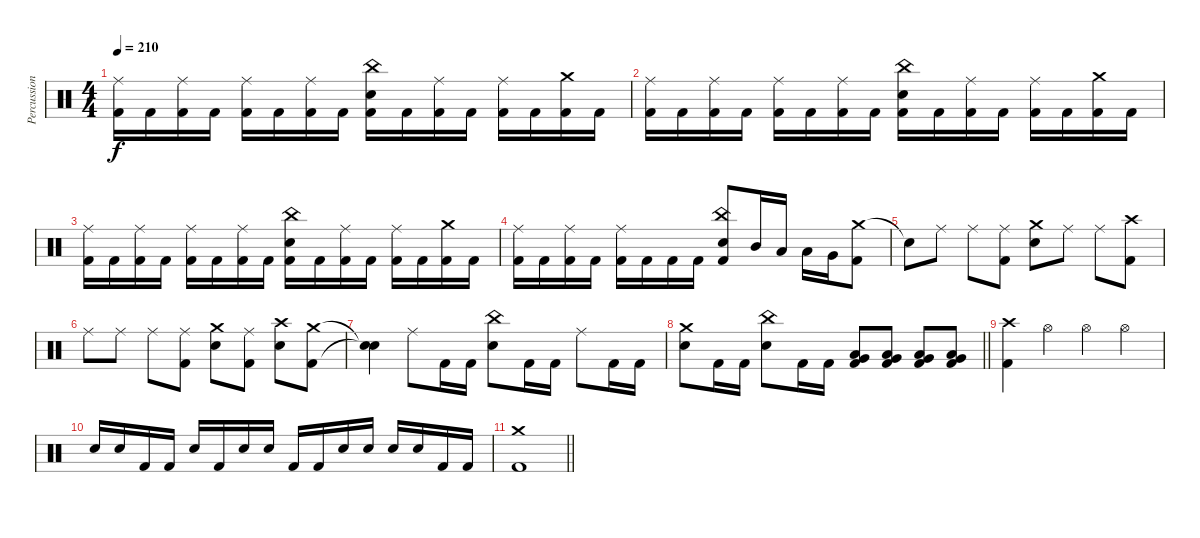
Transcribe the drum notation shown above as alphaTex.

\track ("Percussion" "Percussion") {instrument percussion}
\staff {score}
\articulation defaults
\ts (4 4)
\tempo 210
\clef neutral
\ks c
("Ride (middle)" "Kick (hit) 2").16{dy f} "Kick (hit) 2".16 ("Ride (middle)" "Kick (hit) 2").16 "Kick (hit) 2".16 ("Ride (middle)" "Kick (hit) 2").16 "Kick (hit) 2".16 ("Ride (middle)" "Kick (hit) 2").16 "Kick (hit) 2".16 ("China (hit)" "Snare (hit) 2" "Kick (hit) 2").16 "Kick (hit) 2".16 ("Ride (middle)" "Kick (hit) 2").16 "Kick (hit) 2".16 ("Ride (middle)" "Kick (hit) 2").16 "Kick (hit) 2".16 ("Crash medium (hit)" "Kick (hit) 2").16 "Kick (hit) 2".16 |
("Ride (middle)" "Kick (hit) 2").16 "Kick (hit) 2".16 ("Ride (middle)" "Kick (hit) 2").16 "Kick (hit) 2".16 ("Ride (middle)" "Kick (hit) 2").16 "Kick (hit) 2".16 ("Ride (middle)" "Kick (hit) 2").16 "Kick (hit) 2".16 ("China (hit)" "Snare (hit) 2" "Kick (hit) 2").16 "Kick (hit) 2".16 ("Ride (middle)" "Kick (hit) 2").16 "Kick (hit) 2".16 ("Ride (middle)" "Kick (hit) 2").16 "Kick (hit) 2".16 ("Crash medium (hit)" "Kick (hit) 2").16 "Kick (hit) 2".16 |
("Ride (middle)" "Kick (hit) 2").16 "Kick (hit) 2".16 ("Ride (middle)" "Kick (hit) 2").16 "Kick (hit) 2".16 ("Ride (middle)" "Kick (hit) 2").16 "Kick (hit) 2".16 ("Ride (middle)" "Kick (hit) 2").16 "Kick (hit) 2".16 ("China (hit)" "Snare (hit) 2" "Kick (hit) 2").16 "Kick (hit) 2".16 ("Ride (middle)" "Kick (hit) 2").16 "Kick (hit) 2".16 ("Ride (middle)" "Kick (hit) 2").16 "Kick (hit) 2".16 ("Crash medium (hit)" "Kick (hit) 2").16 "Kick (hit) 2".16 |
("Ride (middle)" "Kick (hit) 2").16 "Kick (hit) 2".16 ("Ride (middle)" "Kick (hit) 2").16 "Kick (hit) 2".16 ("Ride (middle)" "Kick (hit) 2").16 "Kick (hit) 2".16 "Kick (hit) 2".16 "Kick (hit) 2".16 ("China (hit)" "Snare (hit) 2" "Kick (hit) 2").8 "Mid Tom (hit)".16 "Low Tom (hit)".16 "Low Tom (hit)".16 "Very Low Tom (hit)".16 ("Crash medium (hit)" "Kick (hit) 2").8 |
"Snare (hit)"{t}.8 "Ride (middle)".8 "Ride (middle)".8 ("Ride (middle)" "Kick (hit) 2").8 ("Crash medium (hit)" "Snare (hit) 2").8 "Ride (middle)".8 "Ride (middle)".8 ("Crash high (hit)" "Kick (hit) 2").8 |
"Ride (middle)".8 "Ride (middle)".8 "Ride (middle)".8 ("Ride (middle)" "Kick (hit) 2").8 ("Crash medium (hit)" "Snare (hit) 2").8 ("Ride (middle)" "Kick (hit) 2").8 ("Crash high (hit)" "Snare (hit) 2").8 ("Crash medium (hit)" "Kick (hit) 2").8 |
("Snare (hit)"{t} "Snare (hit)"{t}).4 "Ride (middle)".8 "Kick (hit) 2".16 "Kick (hit) 2".16 ("China (hit)" "Snare (hit) 2").8 "Kick (hit) 2".16 "Kick (hit) 2".16 "Ride (middle)".8 "Kick (hit) 2".16 "Kick (hit) 2".16 |
\barLineRight lightlight
("Crash medium (hit)" "Snare (hit) 2").8 "Kick (hit) 2".16 "Kick (hit) 2".16 ("China (hit)" "Snare (hit) 2").8 "Kick (hit) 2".16 "Kick (hit) 2".16 ("Very Low Tom (hit)" "Low Floor Tom (hit)" "Kick (hit) 2").8 ("Low Tom (hit)" "Very Low Tom (hit)" "Kick (hit) 2").8 ("Low Tom (hit)" "Very Low Tom (hit)" "Kick (hit) 2").8 ("Low Tom (hit)" "Very Low Tom (hit)" "Kick (hit) 2").8 |
("Crash high (hit)" "Kick (hit) 2").4 "Hi-Hat (open)".4 "Hi-Hat (open)".4 "Hi-Hat (open)".4 |
"Snare (hit) 2".16 "Snare (hit) 2".16 "Kick (hit) 2".16 "Kick (hit) 2".16 "Snare (hit) 2".16 "Kick (hit) 2".16 "Snare (hit) 2".16 "Snare (hit) 2".16 "Kick (hit) 2".16 "Kick (hit) 2".16 "Snare (hit) 2".16 "Snare (hit) 2".16 "Snare (hit) 2".16 "Snare (hit) 2".16 "Kick (hit) 2".16 "Kick (hit) 2".16 |
\barLineRight lightlight
("Crash medium (hit)" "Kick (hit) 2").1
